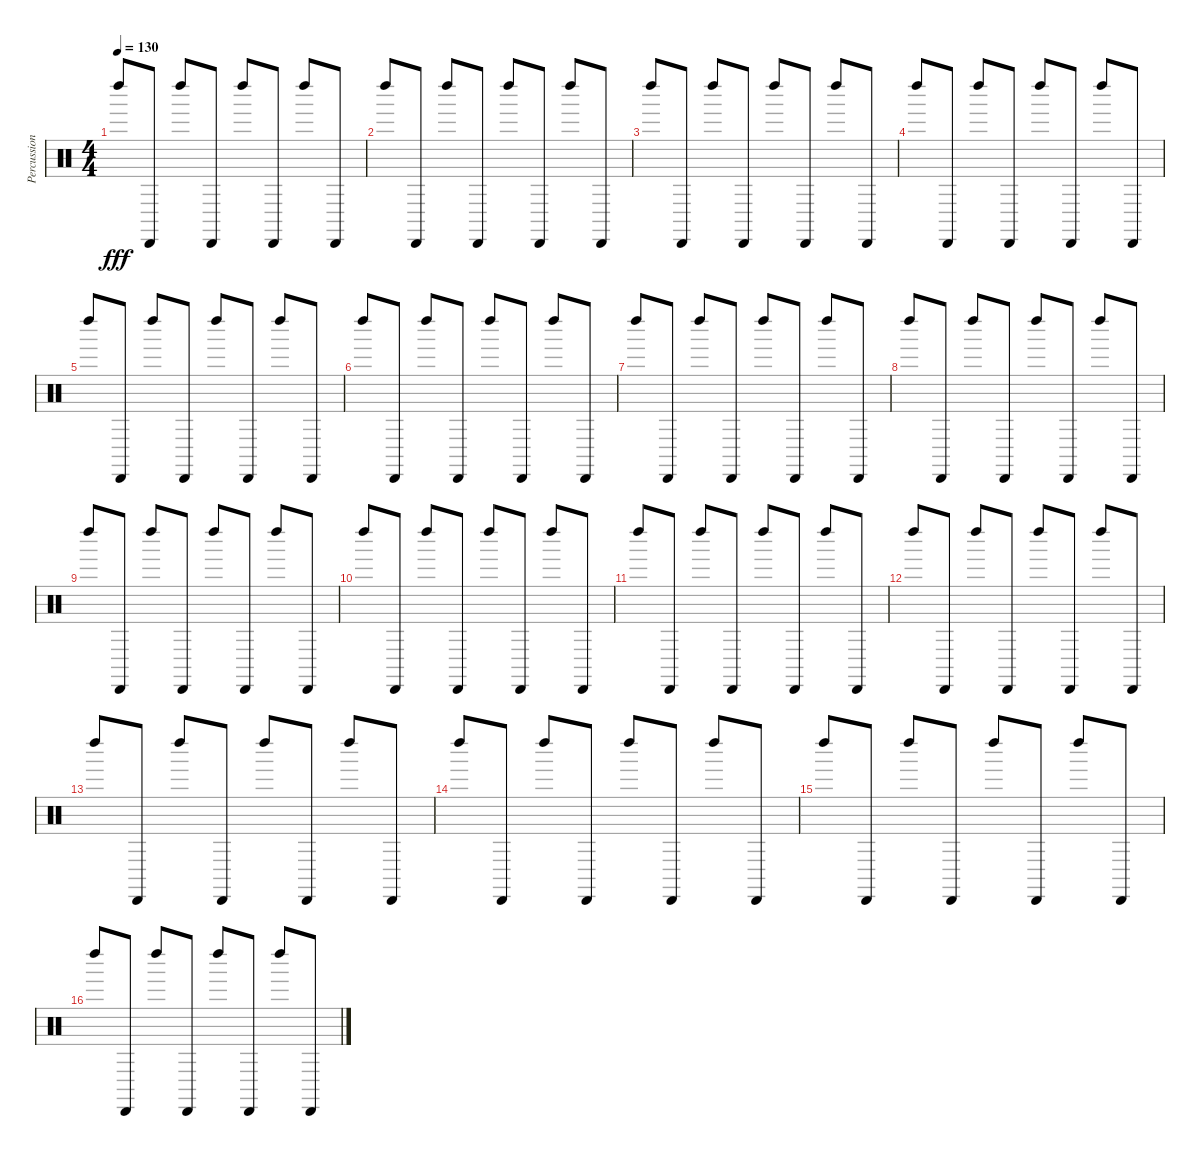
\track ("Percussions" "Percussion") {instrument percussion}
\staff {score}
\articulation defaults
\ts (4 4)
\tempo 130
\clef neutral
\ks c "Left Maraca (hit)".8{dy fff} "Cabasa (hit)".8 "Left Maraca (hit)".8 "Cabasa (hit)".8 "Left Maraca (hit)".8 "Cabasa (hit)".8 "Left Maraca (hit)".8 "Cabasa (hit)".8
|
"Left Maraca (hit)".8 "Cabasa (hit)".8 "Left Maraca (hit)".8 "Cabasa (hit)".8 "Left Maraca (hit)".8 "Cabasa (hit)".8 "Left Maraca (hit)".8 "Cabasa (hit)".8 |
"Left Maraca (hit)".8 "Cabasa (hit)".8 "Left Maraca (hit)".8 "Cabasa (hit)".8 "Left Maraca (hit)".8 "Cabasa (hit)".8 "Left Maraca (hit)".8 "Cabasa (hit)".8 |
"Left Maraca (hit)".8 "Cabasa (hit)".8 "Left Maraca (hit)".8 "Cabasa (hit)".8 "Left Maraca (hit)".8 "Cabasa (hit)".8 "Left Maraca (hit)".8 "Cabasa (hit)".8 |
"Left Maraca (hit)".8 "Cabasa (hit)".8 "Left Maraca (hit)".8 "Cabasa (hit)".8 "Left Maraca (hit)".8 "Cabasa (hit)".8 "Left Maraca (hit)".8 "Cabasa (hit)".8 |
"Left Maraca (hit)".8 "Cabasa (hit)".8 "Left Maraca (hit)".8 "Cabasa (hit)".8 "Left Maraca (hit)".8 "Cabasa (hit)".8 "Left Maraca (hit)".8 "Cabasa (hit)".8 |
"Left Maraca (hit)".8 "Cabasa (hit)".8 "Left Maraca (hit)".8 "Cabasa (hit)".8 "Left Maraca (hit)".8 "Cabasa (hit)".8 "Left Maraca (hit)".8 "Cabasa (hit)".8 |
"Left Maraca (hit)".8 "Cabasa (hit)".8 "Left Maraca (hit)".8 "Cabasa (hit)".8 "Left Maraca (hit)".8 "Cabasa (hit)".8 "Left Maraca (hit)".8 "Cabasa (hit)".8 |
"Left Maraca (hit)".8 "Cabasa (hit)".8 "Left Maraca (hit)".8 "Cabasa (hit)".8 "Left Maraca (hit)".8 "Cabasa (hit)".8 "Left Maraca (hit)".8 "Cabasa (hit)".8 |
"Left Maraca (hit)".8 "Cabasa (hit)".8 "Left Maraca (hit)".8 "Cabasa (hit)".8 "Left Maraca (hit)".8 "Cabasa (hit)".8 "Left Maraca (hit)".8 "Cabasa (hit)".8 |
"Left Maraca (hit)".8 "Cabasa (hit)".8 "Left Maraca (hit)".8 "Cabasa (hit)".8 "Left Maraca (hit)".8 "Cabasa (hit)".8 "Left Maraca (hit)".8 "Cabasa (hit)".8 |
"Left Maraca (hit)".8 "Cabasa (hit)".8 "Left Maraca (hit)".8 "Cabasa (hit)".8 "Left Maraca (hit)".8 "Cabasa (hit)".8 "Left Maraca (hit)".8 "Cabasa (hit)".8 |
"Left Maraca (hit)".8 "Cabasa (hit)".8 "Left Maraca (hit)".8 "Cabasa (hit)".8 "Left Maraca (hit)".8 "Cabasa (hit)".8 "Left Maraca (hit)".8 "Cabasa (hit)".8 |
"Left Maraca (hit)".8 "Cabasa (hit)".8 "Left Maraca (hit)".8 "Cabasa (hit)".8 "Left Maraca (hit)".8 "Cabasa (hit)".8 "Left Maraca (hit)".8 "Cabasa (hit)".8 |
"Left Maraca (hit)".8 "Cabasa (hit)".8 "Left Maraca (hit)".8 "Cabasa (hit)".8 "Left Maraca (hit)".8 "Cabasa (hit)".8 "Left Maraca (hit)".8 "Cabasa (hit)".8 |
"Left Maraca (hit)".8 "Cabasa (hit)".8 "Left Maraca (hit)".8 "Cabasa (hit)".8 "Left Maraca (hit)".8 "Cabasa (hit)".8 "Left Maraca (hit)".8 "Cabasa (hit)".8
